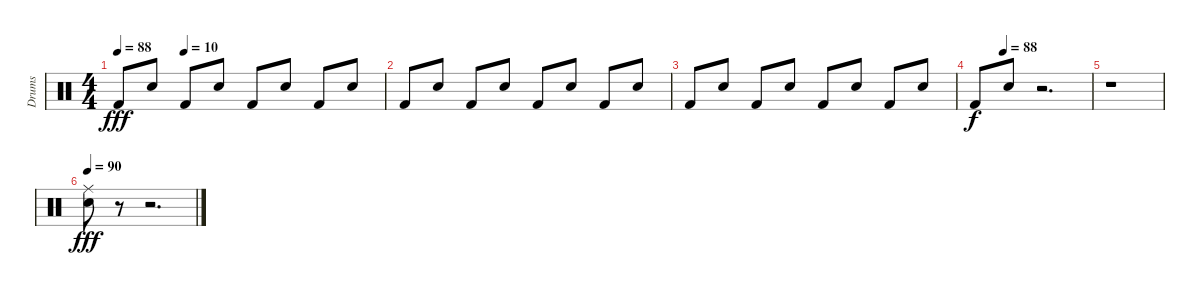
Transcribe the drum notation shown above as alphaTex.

\track ("Drums" "Drums") {instrument percussion}
\staff {score}
\articulation defaults
\ts (4 4)
\tempo 88
\tempo (10 0.25)
\clef neutral
\ks c "Kick (hit) 2".8{dy fff} "Electric Snare (hit)".8 "Kick (hit) 2".8 "Electric Snare (hit)".8 "Kick (hit) 2".8 "Electric Snare (hit)".8 "Kick (hit) 2".8 "Electric Snare (hit)".8
|
"Kick (hit) 2".8 "Electric Snare (hit)".8 "Kick (hit) 2".8 "Electric Snare (hit)".8 "Kick (hit) 2".8 "Electric Snare (hit)".8 "Kick (hit) 2".8 "Electric Snare (hit)".8 |
"Kick (hit) 2".8 "Electric Snare (hit)".8 "Kick (hit) 2".8 "Electric Snare (hit)".8 "Kick (hit) 2".8 "Electric Snare (hit)".8 "Kick (hit) 2".8 "Electric Snare (hit)".8 |
\tempo (88 0.25)
"Kick (hit) 2".8{dy f} "Electric Snare (hit)".8 r.2{d} |
r.1 |
\tempo 90
("Ride (middle)" "Electric Snare (hit)").8{dy fff} r.8 r.2{d}
